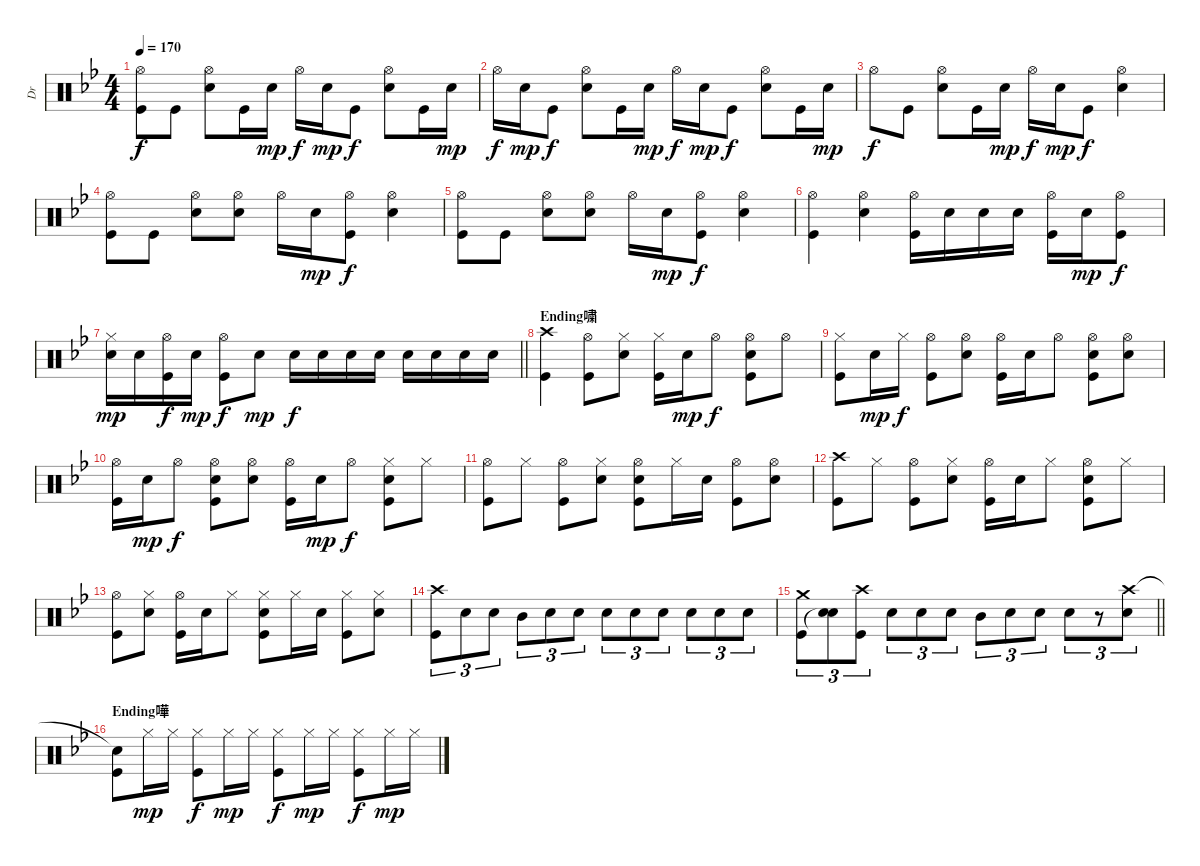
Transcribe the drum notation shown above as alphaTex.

\track ("Dr" "Dr") {instrument percussion}
\staff {score}
\articulation defaults
\ts (4 4)
\tempo 170
\clef neutral
\ks bb
("Hi-Hat (open)" "Kick (hit)").8{dy f} "Kick (hit)".8 ("Hi-Hat (open)" "Electric Snare (hit)").8 "Kick (hit)".16 "Electric Snare (hit)".16{dy mp} "Hi-Hat (open)".16{dy f} "Electric Snare (hit)".16{dy mp} "Kick (hit)".8{dy f} ("Hi-Hat (open)" "Electric Snare (hit)").8 "Kick (hit)".16 "Electric Snare (hit)".16{dy mp} |
"Hi-Hat (open)".16{dy f} "Electric Snare (hit)".16{dy mp} "Kick (hit)".8{dy f} ("Hi-Hat (open)" "Electric Snare (hit)").8 "Kick (hit)".16 "Electric Snare (hit)".16{dy mp} "Hi-Hat (open)".16{dy f} "Electric Snare (hit)".16{dy mp} "Kick (hit)".8{dy f} ("Hi-Hat (open)" "Electric Snare (hit)").8 "Kick (hit)".16 "Electric Snare (hit)".16{dy mp} |
"Hi-Hat (open)".8{dy f} "Kick (hit)".8 ("Hi-Hat (open)" "Electric Snare (hit)").8 "Kick (hit)".16 "Electric Snare (hit)".16{dy mp} "Hi-Hat (open)".16{dy f} "Electric Snare (hit)".16{dy mp} "Kick (hit)".8{dy f} ("Hi-Hat (open)" "Electric Snare (hit)").4 |
("Hi-Hat (open)" "Kick (hit)").8 "Kick (hit)".8 ("Hi-Hat (open)" "Electric Snare (hit)").8 ("Hi-Hat (open)" "Electric Snare (hit)").8 "Hi-Hat (open)".16 "Electric Snare (hit)".16{dy mp} ("Hi-Hat (open)" "Kick (hit)").8{dy f} ("Hi-Hat (open)" "Electric Snare (hit)").4 |
("Hi-Hat (open)" "Kick (hit)").8 "Kick (hit)".8 ("Hi-Hat (open)" "Electric Snare (hit)").8 ("Hi-Hat (open)" "Electric Snare (hit)").8 "Hi-Hat (open)".16 "Electric Snare (hit)".16{dy mp} ("Hi-Hat (open)" "Kick (hit)").8{dy f} ("Hi-Hat (open)" "Electric Snare (hit)").4 |
("Hi-Hat (open)" "Kick (hit)").4 ("Hi-Hat (open)" "Electric Snare (hit)").4 ("Hi-Hat (open)" "Kick (hit)").16 "Electric Snare (hit)".16 "Electric Snare (hit)".16 "Electric Snare (hit)".16 ("Hi-Hat (open)" "Kick (hit)").16 "Electric Snare (hit)".16{dy mp} ("Hi-Hat (open)" "Kick (hit)").8{dy f} |
\barLineRight lightlight
("Hi-Hat (closed)" "Electric Snare (hit)").16{dy mp} "Electric Snare (hit)".16 ("Hi-Hat (open)" "Kick (hit)").16{dy f} "Electric Snare (hit)".16{dy mp} ("Hi-Hat (open)" "Kick (hit)").8{dy f} "Electric Snare (hit)".8{dy mp} "Electric Snare (hit)".16{dy f} "Electric Snare (hit)".16 "Electric Snare (hit)".16 "Electric Snare (hit)".16 "Electric Snare (hit)".16 "Electric Snare (hit)".16 "Electric Snare (hit)".16 "Electric Snare (hit)".16 |
\section ("" "Ending嘨")
("Crash high (hit)" "Kick (hit)").4 ("Hi-Hat (open)" "Kick (hit)").8 ("Hi-Hat (closed)" "Electric Snare (hit)").8 ("Hi-Hat (closed)" "Kick (hit)").16 "Electric Snare (hit)".16{dy mp} "Hi-Hat (open)".8{dy f} ("Hi-Hat (open)" "Electric Snare (hit)" "Kick (hit)").8 "Hi-Hat (open)".8 |
("Hi-Hat (closed)" "Kick (hit)").8 "Electric Snare (hit)".16{dy mp} "Hi-Hat (closed)".16{dy f} ("Hi-Hat (open)" "Kick (hit)").8 ("Hi-Hat (open)" "Electric Snare (hit)").8 ("Hi-Hat (open)" "Kick (hit)").16 "Electric Snare (hit)".16 "Hi-Hat (open)".8 ("Hi-Hat (open)" "Electric Snare (hit)" "Kick (hit)").8 ("Hi-Hat (open)" "Electric Snare (hit)").8 |
("Hi-Hat (open)" "Kick (hit)").16 "Electric Snare (hit)".16{dy mp} "Hi-Hat (open)".8{dy f} ("Hi-Hat (open)" "Electric Snare (hit)" "Kick (hit)").8 ("Hi-Hat (open)" "Electric Snare (hit)").8 ("Hi-Hat (open)" "Kick (hit)").16 "Electric Snare (hit)".16{dy mp} "Hi-Hat (open)".8{dy f} ("Hi-Hat (closed)" "Electric Snare (hit)" "Kick (hit)").8 "Hi-Hat (closed)".8 |
("Hi-Hat (open)" "Kick (hit)").8 "Hi-Hat (closed)".8 ("Hi-Hat (open)" "Kick (hit)").8 ("Hi-Hat (closed)" "Electric Snare (hit)").8 ("Hi-Hat (open)" "Electric Snare (hit)" "Kick (hit)").8 "Hi-Hat (closed)".16 "Electric Snare (hit)".16 ("Hi-Hat (open)" "Kick (hit)").8 ("Hi-Hat (open)" "Electric Snare (hit)").8 |
("Crash high (hit)" "Kick (hit)").8 "Hi-Hat (closed)".8 ("Hi-Hat (open)" "Kick (hit)").8 ("Hi-Hat (closed)" "Electric Snare (hit)").8 ("Hi-Hat (open)" "Kick (hit)").16 "Electric Snare (hit)".16 "Hi-Hat (closed)".8 ("Hi-Hat (open)" "Electric Snare (hit)" "Kick (hit)").8 "Hi-Hat (closed)".8 |
("Hi-Hat (open)" "Kick (hit)").8 ("Hi-Hat (closed)" "Electric Snare (hit)").8 ("Hi-Hat (open)" "Kick (hit)").16 "Electric Snare (hit)".16 "Hi-Hat (closed)".8 ("Hi-Hat (closed)" "Electric Snare (hit)" "Kick (hit)").8 "Hi-Hat (closed)".16 "Electric Snare (hit)".16 ("Hi-Hat (closed)" "Kick (hit)").8 ("Hi-Hat (closed)" "Electric Snare (hit)").8 |
("Crash high (hit)" "Kick (hit)").8{tu (3 2)} "Electric Snare (hit)".8{tu (3 2)} "Electric Snare (hit)".8{tu (3 2)} "Mid Tom (hit)".8{tu (3 2)} "Electric Snare (hit)".8{tu (3 2)} "Electric Snare (hit)".8{tu (3 2)} "Electric Snare (hit)".8{tu (3 2)} "Electric Snare (hit)".8{tu (3 2)} "Electric Snare (hit)".8{tu (3 2)} "Electric Snare (hit)".8{tu (3 2)} "Electric Snare (hit)".8{tu (3 2)} "Electric Snare (hit)".8{tu (3 2)} |
\barLineRight lightlight
("Crash medium (hit)" "Kick (hit)").8{tu (3 2)} ("Electric Snare (hit)" "Snare (hit)"{t}).8{tu (3 2)} ("Crash high (hit)" "Kick (hit)").8{tu (3 2)} "Electric Snare (hit)".8{tu (3 2)} "Electric Snare (hit)".8{tu (3 2)} "Electric Snare (hit)".8{tu (3 2)} "Mid Tom (hit)".8{tu (3 2)} "Electric Snare (hit)".8{tu (3 2)} "Electric Snare (hit)".8{tu (3 2)} "Electric Snare (hit)".8{tu (3 2)} r.8{tu (3 2)} ("Crash high (hit)" "Electric Snare (hit)").8{tu (3 2)} |
\section ("" "Ending嘩")
("Snare (hit)"{t} "Kick (hit)").8 "Hi-Hat (closed)".16{dy mp} "Hi-Hat (closed)".16 ("Hi-Hat (closed)" "Kick (hit)").8{dy f} "Hi-Hat (closed)".16{dy mp} "Hi-Hat (closed)".16 ("Hi-Hat (closed)" "Kick (hit)").8{dy f} "Hi-Hat (closed)".16{dy mp} "Hi-Hat (closed)".16 ("Hi-Hat (closed)" "Kick (hit)").8{dy f} "Hi-Hat (closed)".16{dy mp} "Hi-Hat (closed)".16
